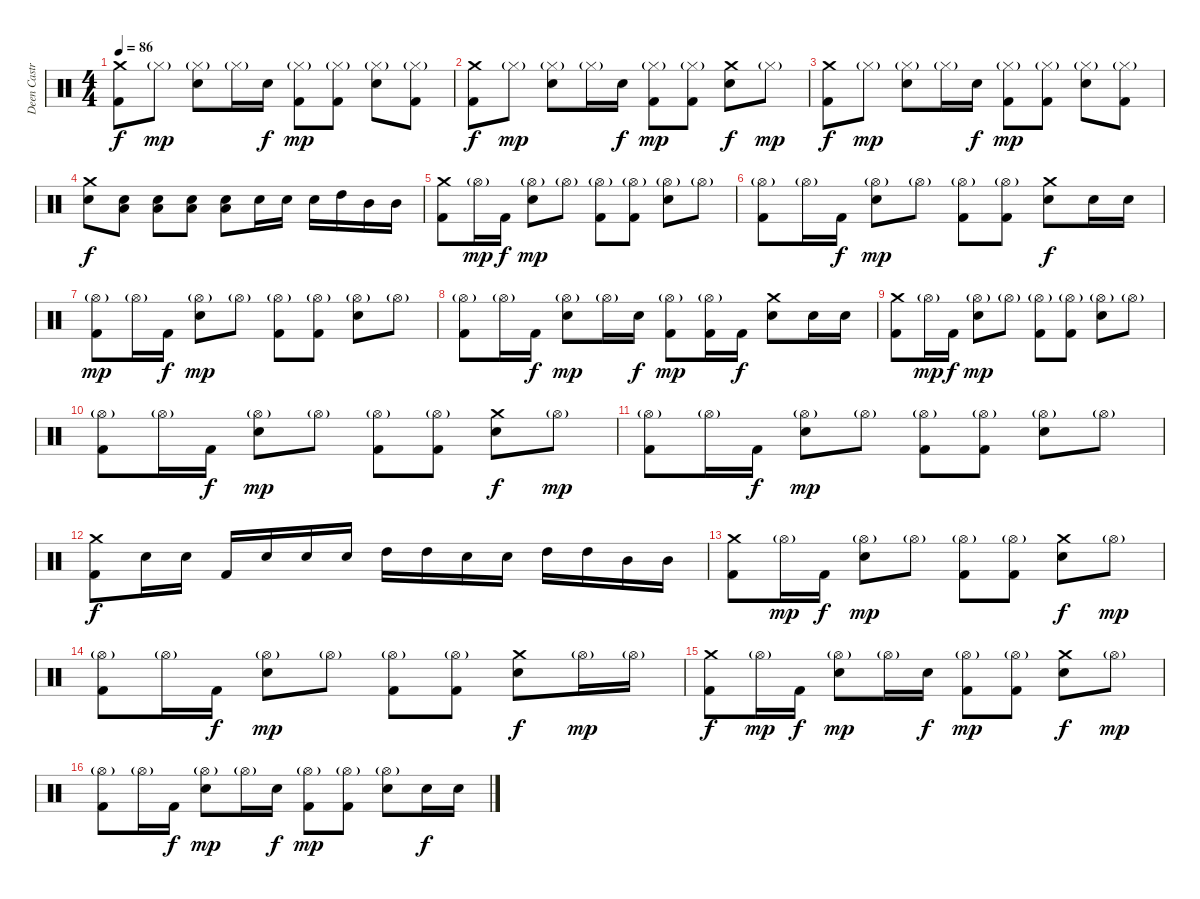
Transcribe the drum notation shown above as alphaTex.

\track ("Deen Castronovo" "Deen Castr") {instrument percussion}
\staff {score}
\articulation defaults
\ts (4 4)
\tempo 86
\clef neutral
\ks c
("Crash medium (hit)" "Kick (hit) 2").8{dy f} "Hi-Hat (closed)"{g}.8{dy mp} ("Hi-Hat (closed)"{g} "Electric Snare (hit)").8 "Hi-Hat (closed)"{g}.16 "Electric Snare (hit)".16{dy f} ("Hi-Hat (closed)"{g} "Kick (hit) 2").8{dy mp} ("Hi-Hat (closed)"{g} "Kick (hit) 2").8 ("Hi-Hat (closed)"{g} "Electric Snare (hit)").8 ("Hi-Hat (closed)"{g} "Kick (hit) 2").8 |
("Crash medium (hit)" "Kick (hit) 2").8{dy f} "Hi-Hat (closed)"{g}.8{dy mp} ("Hi-Hat (closed)"{g} "Electric Snare (hit)").8 "Hi-Hat (closed)"{g}.16 "Electric Snare (hit)".16{dy f} ("Hi-Hat (closed)"{g} "Kick (hit) 2").8{dy mp} ("Hi-Hat (closed)"{g} "Kick (hit) 2").8 ("Crash medium (hit)" "Electric Snare (hit)").8{dy f} "Hi-Hat (closed)"{g}.8{dy mp} |
("Crash medium (hit)" "Kick (hit) 2").8{dy f} "Hi-Hat (closed)"{g}.8{dy mp} ("Hi-Hat (closed)"{g} "Electric Snare (hit)").8 "Hi-Hat (closed)"{g}.16 "Electric Snare (hit)".16{dy f} ("Hi-Hat (closed)"{g} "Kick (hit) 2").8{dy mp} ("Hi-Hat (closed)"{g} "Kick (hit) 2").8 ("Hi-Hat (closed)"{g} "Electric Snare (hit)").8 ("Hi-Hat (closed)"{g} "Kick (hit) 2").8 |
("Crash medium (hit)" "Electric Snare (hit)").8{dy f} ("Electric Snare (hit)" "Low Tom (hit)").8 ("Electric Snare (hit)" "Low Tom (hit)").8 ("Electric Snare (hit)" "Low Tom (hit)").8 ("Electric Snare (hit)" "Low Tom (hit)").8 "Electric Snare (hit)".16 "Electric Snare (hit)".16 "Electric Snare (hit)".16 "High Tom (hit)".16 "Mid Tom (hit)".16 "Mid Tom (hit)".16 |
("Crash medium (hit)" "Kick (hit) 2").8 "Hi-Hat (open)"{g}.16{dy mp} "Kick (hit) 2".16{dy f} ("Hi-Hat (open)"{g} "Electric Snare (hit)").8{dy mp} "Hi-Hat (open)"{g}.8 ("Hi-Hat (open)"{g} "Kick (hit) 2").8 ("Hi-Hat (open)"{g} "Kick (hit) 2").8 ("Hi-Hat (open)"{g} "Electric Snare (hit)").8 "Hi-Hat (open)"{g}.8 |
("Hi-Hat (open)"{g} "Kick (hit) 2").8 "Hi-Hat (open)"{g}.16 "Kick (hit) 2".16{dy f} ("Hi-Hat (open)"{g} "Electric Snare (hit)").8{dy mp} "Hi-Hat (open)"{g}.8 ("Hi-Hat (open)"{g} "Kick (hit) 2").8 ("Hi-Hat (open)"{g} "Kick (hit) 2").8 ("Crash medium (hit)" "Electric Snare (hit)").8{dy f} "Electric Snare (hit)".16 "Electric Snare (hit)".16 |
("Hi-Hat (open)"{g} "Kick (hit) 2").8{dy mp} "Hi-Hat (open)"{g}.16 "Kick (hit) 2".16{dy f} ("Hi-Hat (open)"{g} "Electric Snare (hit)").8{dy mp} "Hi-Hat (open)"{g}.8 ("Hi-Hat (open)"{g} "Kick (hit) 2").8 ("Hi-Hat (open)"{g} "Kick (hit) 2").8 ("Hi-Hat (open)"{g} "Electric Snare (hit)").8 "Hi-Hat (open)"{g}.8 |
("Hi-Hat (open)"{g} "Kick (hit) 2").8 "Hi-Hat (open)"{g}.16 "Kick (hit) 2".16{dy f} ("Hi-Hat (open)"{g} "Electric Snare (hit)").8{dy mp} "Hi-Hat (open)"{g}.16 "Electric Snare (hit)".16{dy f} ("Hi-Hat (open)"{g} "Kick (hit) 2").8{dy mp} ("Hi-Hat (open)"{g} "Kick (hit) 2").16 "Kick (hit) 2".16{dy f} ("Crash medium (hit)" "Electric Snare (hit)").8 "Electric Snare (hit)".16 "Electric Snare (hit)".16 |
("Crash medium (hit)" "Kick (hit) 2").8 "Hi-Hat (open)"{g}.16{dy mp} "Kick (hit) 2".16{dy f} ("Hi-Hat (open)"{g} "Electric Snare (hit)").8{dy mp} "Hi-Hat (open)"{g}.8 ("Hi-Hat (open)"{g} "Kick (hit) 2").8 ("Hi-Hat (open)"{g} "Kick (hit) 2").8 ("Hi-Hat (open)"{g} "Electric Snare (hit)").8 "Hi-Hat (open)"{g}.8 |
("Hi-Hat (open)"{g} "Kick (hit) 2").8 "Hi-Hat (open)"{g}.16 "Kick (hit) 2".16{dy f} ("Hi-Hat (open)"{g} "Electric Snare (hit)").8{dy mp} "Hi-Hat (open)"{g}.8 ("Hi-Hat (open)"{g} "Kick (hit) 2").8 ("Hi-Hat (open)"{g} "Kick (hit) 2").8 ("Crash medium (hit)" "Electric Snare (hit)").8{dy f} "Hi-Hat (open)"{g}.8{dy mp} |
("Hi-Hat (open)"{g} "Kick (hit) 2").8 "Hi-Hat (open)"{g}.16 "Kick (hit) 2".16{dy f} ("Hi-Hat (open)"{g} "Electric Snare (hit)").8{dy mp} "Hi-Hat (open)"{g}.8 ("Hi-Hat (open)"{g} "Kick (hit) 2").8 ("Hi-Hat (open)"{g} "Kick (hit) 2").8 ("Hi-Hat (open)"{g} "Electric Snare (hit)").8 "Hi-Hat (open)"{g}.8 |
("Crash medium (hit)" "Kick (hit) 2").8{dy f} "Electric Snare (hit)".16 "Electric Snare (hit)".16 "Kick (hit) 2".16 "Electric Snare (hit)".16 "Electric Snare (hit)".16 "Electric Snare (hit)".16 "High Tom (hit)".16 "High Tom (hit)".16 "Electric Snare (hit)".16 "Electric Snare (hit)".16 "High Tom (hit)".16 "High Tom (hit)".16 "Mid Tom (hit)".16 "Mid Tom (hit)".16 |
("Crash medium (hit)" "Kick (hit) 2").8 "Hi-Hat (open)"{g}.16{dy mp} "Kick (hit) 2".16{dy f} ("Hi-Hat (open)"{g} "Electric Snare (hit)").8{dy mp} "Hi-Hat (open)"{g}.8 ("Hi-Hat (open)"{g} "Kick (hit) 2").8 ("Hi-Hat (open)"{g} "Kick (hit) 2").8 ("Crash medium (hit)" "Electric Snare (hit)").8{dy f} "Hi-Hat (open)"{g}.8{dy mp} |
("Hi-Hat (open)"{g} "Kick (hit) 2").8 "Hi-Hat (open)"{g}.16 "Kick (hit) 2".16{dy f} ("Hi-Hat (open)"{g} "Electric Snare (hit)").8{dy mp} "Hi-Hat (open)"{g}.8 ("Hi-Hat (open)"{g} "Kick (hit) 2").8 ("Hi-Hat (open)"{g} "Kick (hit) 2").8 ("Crash medium (hit)" "Electric Snare (hit)").8{dy f} "Hi-Hat (open)"{g}.16{dy mp} "Hi-Hat (open)"{g}.16 |
("Crash medium (hit)" "Kick (hit) 2").8{dy f} "Hi-Hat (open)"{g}.16{dy mp} "Kick (hit) 2".16{dy f} ("Hi-Hat (open)"{g} "Electric Snare (hit)").8{dy mp} "Hi-Hat (open)"{g}.16 "Electric Snare (hit)".16{dy f} ("Hi-Hat (open)"{g} "Kick (hit) 2").8{dy mp} ("Hi-Hat (open)"{g} "Kick (hit) 2").8 ("Crash medium (hit)" "Electric Snare (hit)").8{dy f} "Hi-Hat (open)"{g}.8{dy mp} |
("Hi-Hat (open)"{g} "Kick (hit) 2").8 "Hi-Hat (open)"{g}.16 "Kick (hit) 2".16{dy f} ("Hi-Hat (open)"{g} "Electric Snare (hit)").8{dy mp} "Hi-Hat (open)"{g}.16 "Electric Snare (hit)".16{dy f} ("Hi-Hat (open)"{g} "Kick (hit) 2").8{dy mp} ("Hi-Hat (open)"{g} "Kick (hit) 2").8 ("Hi-Hat (open)"{g} "Electric Snare (hit)").8 "Electric Snare (hit)".16{dy f} "Electric Snare (hit)".16
